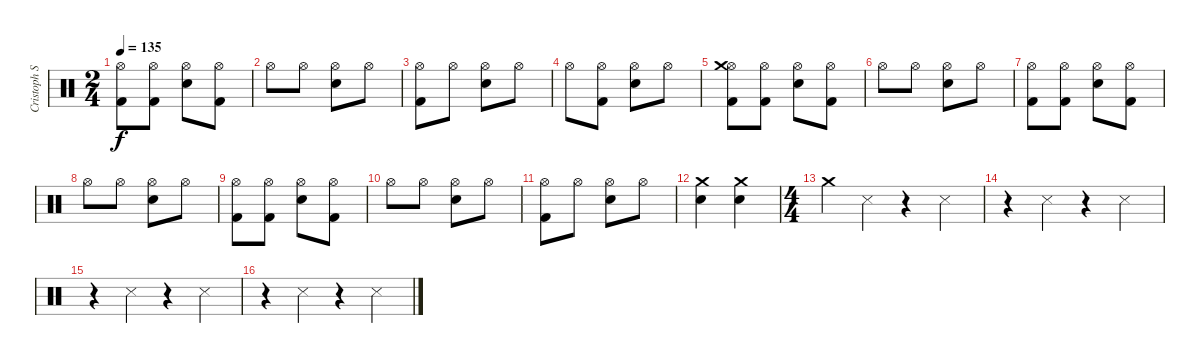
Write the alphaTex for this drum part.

\track ("Cristoph Schneider / Drums" "Cristoph S") {instrument percussion}
\staff {score}
\articulation defaults
\ts (2 4)
\tempo 135
\clef neutral
\ks c
("Hi-Hat (open)" "Kick (hit) 2").8{dy f} ("Hi-Hat (open)" "Kick (hit) 2").8 ("Hi-Hat (open)" "Electric Snare (hit)").8 ("Hi-Hat (open)" "Kick (hit) 2").8 |
"Hi-Hat (open)".8 "Hi-Hat (open)".8 ("Hi-Hat (open)" "Electric Snare (hit)").8 "Hi-Hat (open)".8 |
("Kick (hit) 2" "Hi-Hat (open)").8 "Hi-Hat (open)".8 ("Hi-Hat (open)" "Electric Snare (hit)").8 "Hi-Hat (open)".8 |
"Hi-Hat (open)".8 ("Hi-Hat (open)" "Kick (hit) 2").8 ("Hi-Hat (open)" "Electric Snare (hit)").8 "Hi-Hat (open)".8 |
("Hi-Hat (open)" "Kick (hit) 2" "Crash medium (hit)").8 ("Hi-Hat (open)" "Kick (hit) 2").8 ("Hi-Hat (open)" "Electric Snare (hit)").8 ("Kick (hit) 2" "Hi-Hat (open)").8 |
"Hi-Hat (open)".8 "Hi-Hat (open)".8 ("Electric Snare (hit)" "Hi-Hat (open)").8 "Hi-Hat (open)".8 |
("Hi-Hat (open)" "Kick (hit) 2").8 ("Hi-Hat (open)" "Kick (hit) 2").8 ("Hi-Hat (open)" "Electric Snare (hit)").8 ("Hi-Hat (open)" "Kick (hit) 2").8 |
"Hi-Hat (open)".8 "Hi-Hat (open)".8 ("Electric Snare (hit)" "Hi-Hat (open)").8 "Hi-Hat (open)".8 |
("Hi-Hat (open)" "Kick (hit) 2").8 ("Hi-Hat (open)" "Kick (hit) 2").8 ("Hi-Hat (open)" "Electric Snare (hit)").8 ("Hi-Hat (open)" "Kick (hit) 2").8 |
"Hi-Hat (open)".8 "Hi-Hat (open)".8 ("Hi-Hat (open)" "Electric Snare (hit)").8 "Hi-Hat (open)".8 |
("Kick (hit) 2" "Hi-Hat (open)").8 "Hi-Hat (open)".8 ("Hi-Hat (open)" "Electric Snare (hit)").8 "Hi-Hat (open)".8 |
("Crash medium (hit)" "Electric Snare (hit)").4 ("Crash medium (hit)" "Electric Snare (hit)").4 |
\ts (4 4)
"Crash medium (hit)".4 "Metronome (hit)".4 r.4 "Metronome (hit)".4 |
r.4 "Metronome (hit)".4 r.4 "Metronome (hit)".4 |
r.4 "Metronome (hit)".4 r.4 "Metronome (hit)".4 |
r.4 "Metronome (hit)".4 r.4 "Metronome (hit)".4
